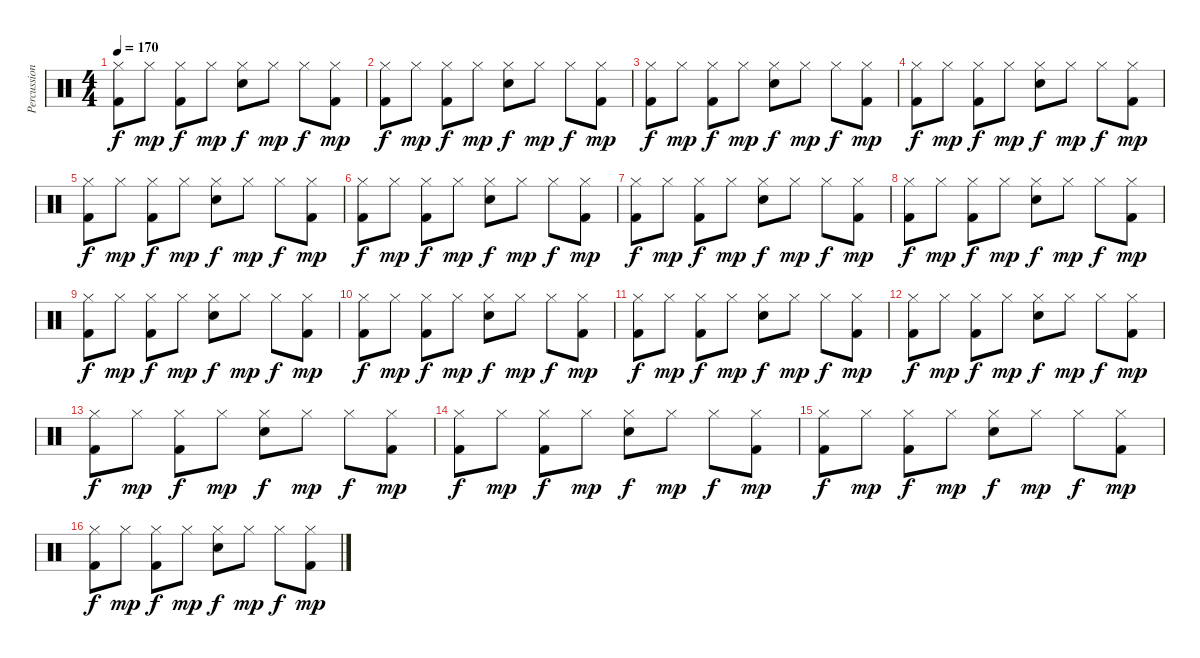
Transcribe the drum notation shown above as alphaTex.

\track ("Percussion" "Percussion") {instrument percussion}
\staff {score}
\articulation defaults
\ts (4 4)
\tempo 170
\clef neutral
\ks c
("Hi-Hat (closed)" "Kick (hit) 2").8{dy f} "Hi-Hat (closed)".8{dy mp} ("Hi-Hat (closed)" "Kick (hit) 2").8{dy f} "Hi-Hat (closed)".8{dy mp} ("Hi-Hat (closed)" "Snare (hit) 2").8{dy f} "Hi-Hat (closed)".8{dy mp} "Hi-Hat (closed)".8{dy f} ("Hi-Hat (closed)" "Kick (hit) 2").8{dy mp} |
("Hi-Hat (closed)" "Kick (hit) 2").8{dy f} "Hi-Hat (closed)".8{dy mp} ("Hi-Hat (closed)" "Kick (hit) 2").8{dy f} "Hi-Hat (closed)".8{dy mp} ("Hi-Hat (closed)" "Snare (hit) 2").8{dy f} "Hi-Hat (closed)".8{dy mp} "Hi-Hat (closed)".8{dy f} ("Hi-Hat (closed)" "Kick (hit) 2").8{dy mp} |
("Hi-Hat (closed)" "Kick (hit) 2").8{dy f} "Hi-Hat (closed)".8{dy mp} ("Hi-Hat (closed)" "Kick (hit) 2").8{dy f} "Hi-Hat (closed)".8{dy mp} ("Hi-Hat (closed)" "Snare (hit) 2").8{dy f} "Hi-Hat (closed)".8{dy mp} "Hi-Hat (closed)".8{dy f} ("Hi-Hat (closed)" "Kick (hit) 2").8{dy mp} |
("Hi-Hat (closed)" "Kick (hit) 2").8{dy f} "Hi-Hat (closed)".8{dy mp} ("Hi-Hat (closed)" "Kick (hit) 2").8{dy f} "Hi-Hat (closed)".8{dy mp} ("Hi-Hat (closed)" "Snare (hit) 2").8{dy f} "Hi-Hat (closed)".8{dy mp} "Hi-Hat (closed)".8{dy f} ("Hi-Hat (closed)" "Kick (hit) 2").8{dy mp} |
("Hi-Hat (closed)" "Kick (hit) 2").8{dy f} "Hi-Hat (closed)".8{dy mp} ("Hi-Hat (closed)" "Kick (hit) 2").8{dy f} "Hi-Hat (closed)".8{dy mp} ("Hi-Hat (closed)" "Snare (hit) 2").8{dy f} "Hi-Hat (closed)".8{dy mp} "Hi-Hat (closed)".8{dy f} ("Hi-Hat (closed)" "Kick (hit) 2").8{dy mp} |
("Hi-Hat (closed)" "Kick (hit) 2").8{dy f} "Hi-Hat (closed)".8{dy mp} ("Hi-Hat (closed)" "Kick (hit) 2").8{dy f} "Hi-Hat (closed)".8{dy mp} ("Hi-Hat (closed)" "Snare (hit) 2").8{dy f} "Hi-Hat (closed)".8{dy mp} "Hi-Hat (closed)".8{dy f} ("Hi-Hat (closed)" "Kick (hit) 2").8{dy mp} |
("Hi-Hat (closed)" "Kick (hit) 2").8{dy f} "Hi-Hat (closed)".8{dy mp} ("Hi-Hat (closed)" "Kick (hit) 2").8{dy f} "Hi-Hat (closed)".8{dy mp} ("Hi-Hat (closed)" "Snare (hit) 2").8{dy f} "Hi-Hat (closed)".8{dy mp} "Hi-Hat (closed)".8{dy f} ("Hi-Hat (closed)" "Kick (hit) 2").8{dy mp} |
("Hi-Hat (closed)" "Kick (hit) 2").8{dy f} "Hi-Hat (closed)".8{dy mp} ("Hi-Hat (closed)" "Kick (hit) 2").8{dy f} "Hi-Hat (closed)".8{dy mp} ("Hi-Hat (closed)" "Snare (hit) 2").8{dy f} "Hi-Hat (closed)".8{dy mp} "Hi-Hat (closed)".8{dy f} ("Hi-Hat (closed)" "Kick (hit) 2").8{dy mp} |
("Hi-Hat (closed)" "Kick (hit) 2").8{dy f} "Hi-Hat (closed)".8{dy mp} ("Hi-Hat (closed)" "Kick (hit) 2").8{dy f} "Hi-Hat (closed)".8{dy mp} ("Hi-Hat (closed)" "Snare (hit) 2").8{dy f} "Hi-Hat (closed)".8{dy mp} "Hi-Hat (closed)".8{dy f} ("Hi-Hat (closed)" "Kick (hit) 2").8{dy mp} |
("Hi-Hat (closed)" "Kick (hit) 2").8{dy f} "Hi-Hat (closed)".8{dy mp} ("Hi-Hat (closed)" "Kick (hit) 2").8{dy f} "Hi-Hat (closed)".8{dy mp} ("Hi-Hat (closed)" "Snare (hit) 2").8{dy f} "Hi-Hat (closed)".8{dy mp} "Hi-Hat (closed)".8{dy f} ("Hi-Hat (closed)" "Kick (hit) 2").8{dy mp} |
("Hi-Hat (closed)" "Kick (hit) 2").8{dy f} "Hi-Hat (closed)".8{dy mp} ("Hi-Hat (closed)" "Kick (hit) 2").8{dy f} "Hi-Hat (closed)".8{dy mp} ("Hi-Hat (closed)" "Snare (hit) 2").8{dy f} "Hi-Hat (closed)".8{dy mp} "Hi-Hat (closed)".8{dy f} ("Hi-Hat (closed)" "Kick (hit) 2").8{dy mp} |
("Hi-Hat (closed)" "Kick (hit) 2").8{dy f} "Hi-Hat (closed)".8{dy mp} ("Hi-Hat (closed)" "Kick (hit) 2").8{dy f} "Hi-Hat (closed)".8{dy mp} ("Hi-Hat (closed)" "Snare (hit) 2").8{dy f} "Hi-Hat (closed)".8{dy mp} "Hi-Hat (closed)".8{dy f} ("Hi-Hat (closed)" "Kick (hit) 2").8{dy mp} |
("Hi-Hat (closed)" "Kick (hit) 2").8{dy f} "Hi-Hat (closed)".8{dy mp} ("Hi-Hat (closed)" "Kick (hit) 2").8{dy f} "Hi-Hat (closed)".8{dy mp} ("Hi-Hat (closed)" "Snare (hit) 2").8{dy f} "Hi-Hat (closed)".8{dy mp} "Hi-Hat (closed)".8{dy f} ("Hi-Hat (closed)" "Kick (hit) 2").8{dy mp} |
("Hi-Hat (closed)" "Kick (hit) 2").8{dy f} "Hi-Hat (closed)".8{dy mp} ("Hi-Hat (closed)" "Kick (hit) 2").8{dy f} "Hi-Hat (closed)".8{dy mp} ("Hi-Hat (closed)" "Snare (hit) 2").8{dy f} "Hi-Hat (closed)".8{dy mp} "Hi-Hat (closed)".8{dy f} ("Hi-Hat (closed)" "Kick (hit) 2").8{dy mp} |
("Hi-Hat (closed)" "Kick (hit) 2").8{dy f} "Hi-Hat (closed)".8{dy mp} ("Hi-Hat (closed)" "Kick (hit) 2").8{dy f} "Hi-Hat (closed)".8{dy mp} ("Hi-Hat (closed)" "Snare (hit) 2").8{dy f} "Hi-Hat (closed)".8{dy mp} "Hi-Hat (closed)".8{dy f} ("Hi-Hat (closed)" "Kick (hit) 2").8{dy mp} |
("Hi-Hat (closed)" "Kick (hit) 2").8{dy f} "Hi-Hat (closed)".8{dy mp} ("Hi-Hat (closed)" "Kick (hit) 2").8{dy f} "Hi-Hat (closed)".8{dy mp} ("Hi-Hat (closed)" "Snare (hit) 2").8{dy f} "Hi-Hat (closed)".8{dy mp} "Hi-Hat (closed)".8{dy f} ("Hi-Hat (closed)" "Kick (hit) 2").8{dy mp}
